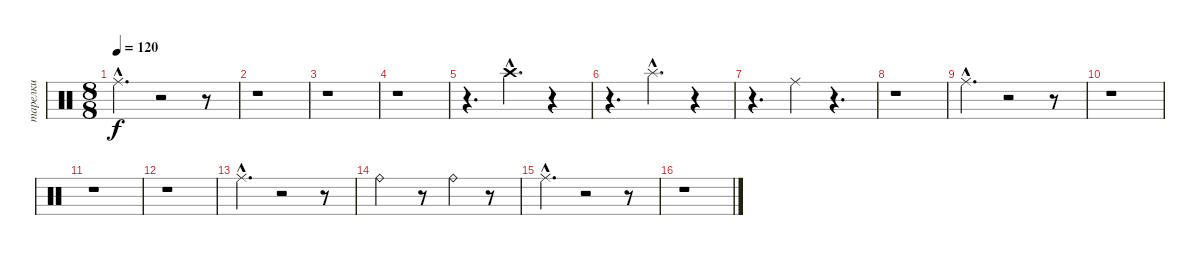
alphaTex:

\track ("тарелки" "тарелки") {instrument percussion}
\staff {score}
\articulation defaults
\ts (8 8)
\tempo 120
\clef neutral
\ks c "Ride (middle)"{hac}.4{d dy f}
r.2 r.8 |
r.1 |
r.1 |
r.1 |
r.4{d} "Crash high (hit)"{hac}.4{d} r.4 |
r.4{d} "Splash (hit)"{hac}.4{d} r.4 |
r.4{d} "Ride (middle)".4 r.4{d} |
r.1 |
"Ride (middle)"{hac}.4{d} r.2 r.8 |
r.1 |
r.1 |
r.1 |
"Ride (middle)"{hac}.4{d} r.2 r.8 |
"Ride (bell)".2 r.8 "Ride (bell)".4 r.8 |
"Ride (middle)"{hac}.4{d} r.2 r.8 |
r.1
